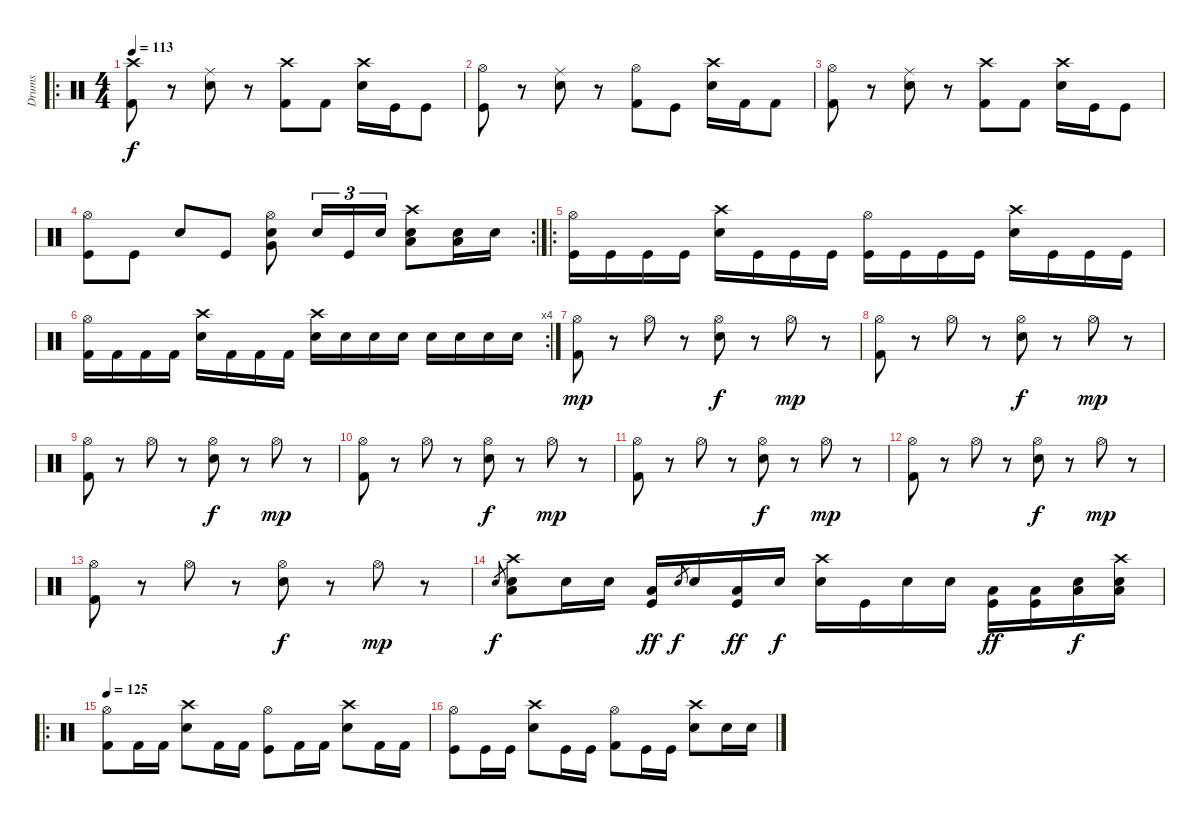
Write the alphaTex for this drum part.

\track ("Drums" "Drums") {instrument percussion}
\staff {score}
\articulation defaults
\ro
\ts (4 4)
\tempo 113
\clef neutral
\ks c
("Crash high (hit)" "Kick (hit) 2").8{dy f} r.8 ("Ride (middle)" "Electric Snare (hit)").8 r.8 ("Crash high (hit)" "Kick (hit) 2").8 "Kick (hit) 2".8 ("Crash high (hit)" "Electric Snare (hit)").16 "Kick (hit)".16 "Kick (hit)".8 |
("Hi-Hat (open)" "Kick (hit)").8 r.8 ("Ride (middle)" "Electric Snare (hit)").8 r.8 ("Hi-Hat (open)" "Kick (hit) 2").8 "Kick (hit)".8 ("Crash high (hit)" "Electric Snare (hit)").16 "Kick (hit) 2".16 "Kick (hit) 2".8 |
("Hi-Hat (open)" "Kick (hit) 2").8 r.8 ("Ride (middle)" "Electric Snare (hit)").8 r.8 ("Crash high (hit)" "Kick (hit) 2").8 "Kick (hit) 2".8 ("Crash high (hit)" "Electric Snare (hit)").16 "Kick (hit)".16 "Kick (hit)".8 |
\rc 2
("Hi-Hat (open)" "Kick (hit)").8 "Kick (hit)".8 "Electric Snare (hit)".8 "Kick (hit)".8 ("Hi-Hat (open)" "Very Low Tom (hit)" "Snare (hit) 2").8 "Snare (hit) 2".16{tu (3 2)} "Kick (hit)".16{tu (3 2)} "Snare (hit) 2".16{tu (3 2)} ("Crash high (hit)" "Low Floor Tom (hit)" "Electric Snare (hit)").8 ("Low Floor Tom (hit)" "Snare (hit) 2").16 "Snare (hit) 2".16 |
\ro
("Hi-Hat (open)" "Kick (hit)").16 "Kick (hit)".16 "Kick (hit)".16 "Kick (hit)".16 ("Crash high (hit)" "Electric Snare (hit)").16 "Kick (hit)".16 "Kick (hit)".16 "Kick (hit)".16 ("Hi-Hat (open)" "Kick (hit)").16 "Kick (hit)".16 "Kick (hit)".16 "Kick (hit)".16 ("Crash high (hit)" "Electric Snare (hit)").16 "Kick (hit)".16 "Kick (hit)".16 "Kick (hit)".16 |
\rc 4
("Hi-Hat (open)" "Kick (hit) 2").16 "Kick (hit) 2".16 "Kick (hit) 2".16 "Kick (hit) 2".16 ("Crash high (hit)" "Electric Snare (hit)").16 "Kick (hit) 2".16 "Kick (hit) 2".16 "Kick (hit) 2".16 ("Crash high (hit)" "Snare (hit) 2").16 "Snare (hit) 2".16 "Snare (hit) 2".16 "Snare (hit) 2".16 "Electric Snare (hit)".16 "Electric Snare (hit)".16 "Electric Snare (hit)".16 "Electric Snare (hit)".16 |
("Hi-Hat (open)" "Kick (hit) 2").8{dy mp} r.8 "Hi-Hat (open)".8 r.8 ("Hi-Hat (open)" "Electric Snare (hit)").8{dy f} r.8 "Hi-Hat (open)".8{dy mp} r.8 |
("Hi-Hat (open)" "Kick (hit) 2").8 r.8 "Hi-Hat (open)".8 r.8 ("Hi-Hat (open)" "Electric Snare (hit)").8{dy f} r.8 "Hi-Hat (open)".8{dy mp} r.8 |
("Hi-Hat (open)" "Kick (hit) 2").8 r.8 "Hi-Hat (open)".8 r.8 ("Hi-Hat (open)" "Electric Snare (hit)").8{dy f} r.8 "Hi-Hat (open)".8{dy mp} r.8 |
("Hi-Hat (open)" "Kick (hit) 2").8 r.8 "Hi-Hat (open)".8 r.8 ("Hi-Hat (open)" "Electric Snare (hit)").8{dy f} r.8 "Hi-Hat (open)".8{dy mp} r.8 |
("Hi-Hat (open)" "Kick (hit) 2").8 r.8 "Hi-Hat (open)".8 r.8 ("Hi-Hat (open)" "Electric Snare (hit)").8{dy f} r.8 "Hi-Hat (open)".8{dy mp} r.8 |
("Hi-Hat (open)" "Kick (hit) 2").8 r.8 "Hi-Hat (open)".8 r.8 ("Hi-Hat (open)" "Electric Snare (hit)").8{dy f} r.8 "Hi-Hat (open)".8{dy mp} r.8 |
("Hi-Hat (open)" "Kick (hit) 2").8 r.8 "Hi-Hat (open)".8 r.8 ("Hi-Hat (open)" "Electric Snare (hit)").8{dy f} r.8 "Hi-Hat (open)".8{dy mp} r.8 |
"Electric Snare (hit)".8{gr dy f} ("Crash high (hit)" "Low Floor Tom (hit)" "Electric Snare (hit)").8 "Electric Snare (hit)".16 "Electric Snare (hit)".16 ("Low Floor Tom (hit)" "Kick (hit)").16{dy ff} "Electric Snare (hit)".8{gr dy f} "Electric Snare (hit)".16 ("Low Floor Tom (hit)" "Kick (hit)").16{dy ff} "Electric Snare (hit)".16{dy f} ("Crash high (hit)" "Electric Snare (hit)").16 "Kick (hit)".16 "Electric Snare (hit)".16 "Electric Snare (hit)".16 ("Low Floor Tom (hit)" "Kick (hit)").16{dy ff} ("Low Floor Tom (hit)" "Kick (hit)").16 ("Low Floor Tom (hit)" "Electric Snare (hit)").16{dy f} ("Crash high (hit)" "Low Floor Tom (hit)" "Electric Snare (hit)").16 |
\ro
\tempo 125
("Hi-Hat (open)" "Kick (hit) 2").8 "Kick (hit) 2".16 "Kick (hit) 2".16 ("Crash high (hit)" "Electric Snare (hit)").8 "Kick (hit) 2".16 "Kick (hit) 2".16 ("Hi-Hat (open)" "Kick (hit)").8 "Kick (hit) 2".16 "Kick (hit) 2".16 ("Crash high (hit)" "Electric Snare (hit)").8 "Kick (hit) 2".16 "Kick (hit) 2".16 |
("Hi-Hat (open)" "Kick (hit)").8 "Kick (hit)".16 "Kick (hit)".16 ("Crash high (hit)" "Electric Snare (hit)").8 "Kick (hit)".16 "Kick (hit)".16 ("Hi-Hat (open)" "Kick (hit) 2").8 "Kick (hit)".16 "Kick (hit)".16 ("Crash high (hit)" "Electric Snare (hit)").8 "Snare (hit) 2".16 "Snare (hit) 2".16
